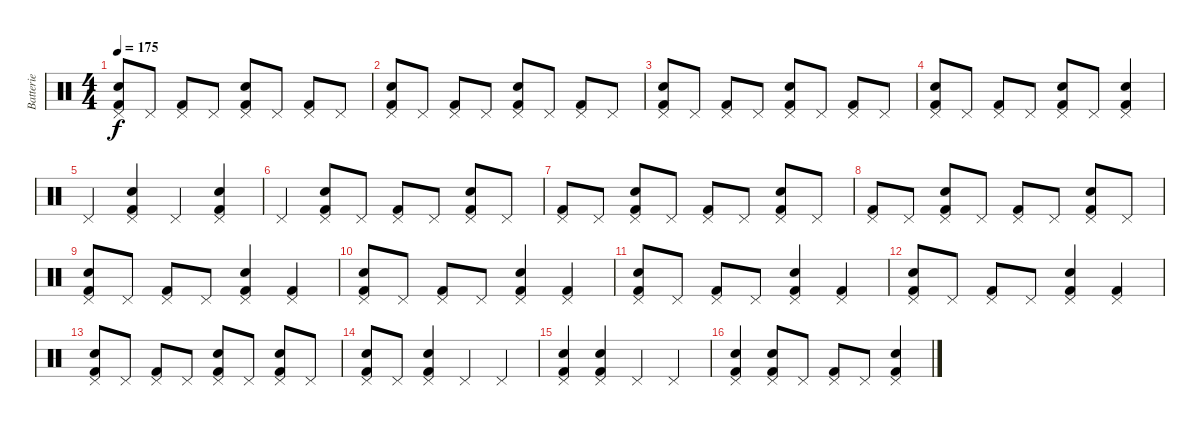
\track ("Batterie" "Batterie") {instrument percussion}
\staff {score}
\articulation defaults
\ts (4 4)
\tempo 175
\clef neutral
\ks c
("Pedal Hi-Hat (hit)" "Electric Snare (hit)" "Kick (hit) 2").8{dy f} "Pedal Hi-Hat (hit)".8 ("Pedal Hi-Hat (hit)" "Kick (hit) 2").8 "Pedal Hi-Hat (hit)".8 ("Pedal Hi-Hat (hit)" "Electric Snare (hit)" "Kick (hit) 2").8 "Pedal Hi-Hat (hit)".8 ("Pedal Hi-Hat (hit)" "Kick (hit) 2").8 "Pedal Hi-Hat (hit)".8 |
("Pedal Hi-Hat (hit)" "Electric Snare (hit)" "Kick (hit) 2").8 "Pedal Hi-Hat (hit)".8 ("Pedal Hi-Hat (hit)" "Kick (hit) 2").8 "Pedal Hi-Hat (hit)".8 ("Pedal Hi-Hat (hit)" "Electric Snare (hit)" "Kick (hit) 2").8 "Pedal Hi-Hat (hit)".8 ("Pedal Hi-Hat (hit)" "Kick (hit) 2").8 "Pedal Hi-Hat (hit)".8 |
("Pedal Hi-Hat (hit)" "Electric Snare (hit)" "Kick (hit) 2").8 "Pedal Hi-Hat (hit)".8 ("Pedal Hi-Hat (hit)" "Kick (hit) 2").8 "Pedal Hi-Hat (hit)".8 ("Pedal Hi-Hat (hit)" "Electric Snare (hit)" "Kick (hit) 2").8 "Pedal Hi-Hat (hit)".8 ("Pedal Hi-Hat (hit)" "Kick (hit) 2").8 "Pedal Hi-Hat (hit)".8 |
("Pedal Hi-Hat (hit)" "Electric Snare (hit)" "Kick (hit) 2").8 "Pedal Hi-Hat (hit)".8 ("Pedal Hi-Hat (hit)" "Kick (hit) 2").8 "Pedal Hi-Hat (hit)".8 ("Pedal Hi-Hat (hit)" "Electric Snare (hit)" "Kick (hit) 2").8 "Pedal Hi-Hat (hit)".8 ("Pedal Hi-Hat (hit)" "Electric Snare (hit)" "Kick (hit) 2").4 |
"Pedal Hi-Hat (hit)".4 ("Pedal Hi-Hat (hit)" "Electric Snare (hit)" "Kick (hit) 2").4 "Pedal Hi-Hat (hit)".4 ("Pedal Hi-Hat (hit)" "Electric Snare (hit)" "Kick (hit) 2").4 |
"Pedal Hi-Hat (hit)".4 ("Pedal Hi-Hat (hit)" "Electric Snare (hit)" "Kick (hit) 2").8 "Pedal Hi-Hat (hit)".8 ("Pedal Hi-Hat (hit)" "Kick (hit) 2").8 "Pedal Hi-Hat (hit)".8 ("Pedal Hi-Hat (hit)" "Electric Snare (hit)" "Kick (hit) 2").8 "Pedal Hi-Hat (hit)".8 |
("Pedal Hi-Hat (hit)" "Kick (hit) 2").8 "Pedal Hi-Hat (hit)".8 ("Pedal Hi-Hat (hit)" "Electric Snare (hit)" "Kick (hit) 2").8 "Pedal Hi-Hat (hit)".8 ("Pedal Hi-Hat (hit)" "Kick (hit) 2").8 "Pedal Hi-Hat (hit)".8 ("Pedal Hi-Hat (hit)" "Electric Snare (hit)" "Kick (hit) 2").8 "Pedal Hi-Hat (hit)".8 |
("Pedal Hi-Hat (hit)" "Kick (hit) 2").8 "Pedal Hi-Hat (hit)".8 ("Pedal Hi-Hat (hit)" "Electric Snare (hit)" "Kick (hit) 2").8 "Pedal Hi-Hat (hit)".8 ("Pedal Hi-Hat (hit)" "Kick (hit) 2").8 "Pedal Hi-Hat (hit)".8 ("Pedal Hi-Hat (hit)" "Electric Snare (hit)" "Kick (hit) 2").8 "Pedal Hi-Hat (hit)".8 |
("Pedal Hi-Hat (hit)" "Electric Snare (hit)" "Kick (hit) 2").8 "Pedal Hi-Hat (hit)".8 ("Pedal Hi-Hat (hit)" "Kick (hit) 2").8 "Pedal Hi-Hat (hit)".8 ("Pedal Hi-Hat (hit)" "Electric Snare (hit)" "Kick (hit) 2").4 ("Pedal Hi-Hat (hit)" "Kick (hit) 2").4 |
("Pedal Hi-Hat (hit)" "Electric Snare (hit)" "Kick (hit) 2").8 "Pedal Hi-Hat (hit)".8 ("Pedal Hi-Hat (hit)" "Kick (hit) 2").8 "Pedal Hi-Hat (hit)".8 ("Pedal Hi-Hat (hit)" "Electric Snare (hit)" "Kick (hit) 2").4 ("Pedal Hi-Hat (hit)" "Kick (hit) 2").4 |
("Pedal Hi-Hat (hit)" "Electric Snare (hit)" "Kick (hit) 2").8 "Pedal Hi-Hat (hit)".8 ("Pedal Hi-Hat (hit)" "Kick (hit) 2").8 "Pedal Hi-Hat (hit)".8 ("Pedal Hi-Hat (hit)" "Electric Snare (hit)" "Kick (hit) 2").4 ("Pedal Hi-Hat (hit)" "Kick (hit) 2").4 |
("Pedal Hi-Hat (hit)" "Electric Snare (hit)" "Kick (hit) 2").8 "Pedal Hi-Hat (hit)".8 ("Pedal Hi-Hat (hit)" "Kick (hit) 2").8 "Pedal Hi-Hat (hit)".8 ("Pedal Hi-Hat (hit)" "Electric Snare (hit)" "Kick (hit) 2").4 ("Pedal Hi-Hat (hit)" "Kick (hit) 2").4 |
("Pedal Hi-Hat (hit)" "Electric Snare (hit)" "Kick (hit) 2").8 "Pedal Hi-Hat (hit)".8 ("Pedal Hi-Hat (hit)" "Kick (hit) 2").8 "Pedal Hi-Hat (hit)".8 ("Pedal Hi-Hat (hit)" "Electric Snare (hit)" "Kick (hit) 2").8 "Pedal Hi-Hat (hit)".8 ("Pedal Hi-Hat (hit)" "Electric Snare (hit)" "Kick (hit) 2").8 "Pedal Hi-Hat (hit)".8 |
("Pedal Hi-Hat (hit)" "Electric Snare (hit)" "Kick (hit) 2").8 "Pedal Hi-Hat (hit)".8 ("Pedal Hi-Hat (hit)" "Electric Snare (hit)" "Kick (hit) 2").4 "Pedal Hi-Hat (hit)".4 "Pedal Hi-Hat (hit)".4 |
("Pedal Hi-Hat (hit)" "Electric Snare (hit)" "Kick (hit) 2").4 ("Pedal Hi-Hat (hit)" "Electric Snare (hit)" "Kick (hit) 2").4 "Pedal Hi-Hat (hit)".4 "Pedal Hi-Hat (hit)".4 |
("Pedal Hi-Hat (hit)" "Electric Snare (hit)" "Kick (hit) 2").4 ("Pedal Hi-Hat (hit)" "Electric Snare (hit)" "Kick (hit) 2").8 "Pedal Hi-Hat (hit)".8 ("Pedal Hi-Hat (hit)" "Kick (hit) 2").8 "Pedal Hi-Hat (hit)".8 ("Pedal Hi-Hat (hit)" "Electric Snare (hit)" "Kick (hit) 2").4
